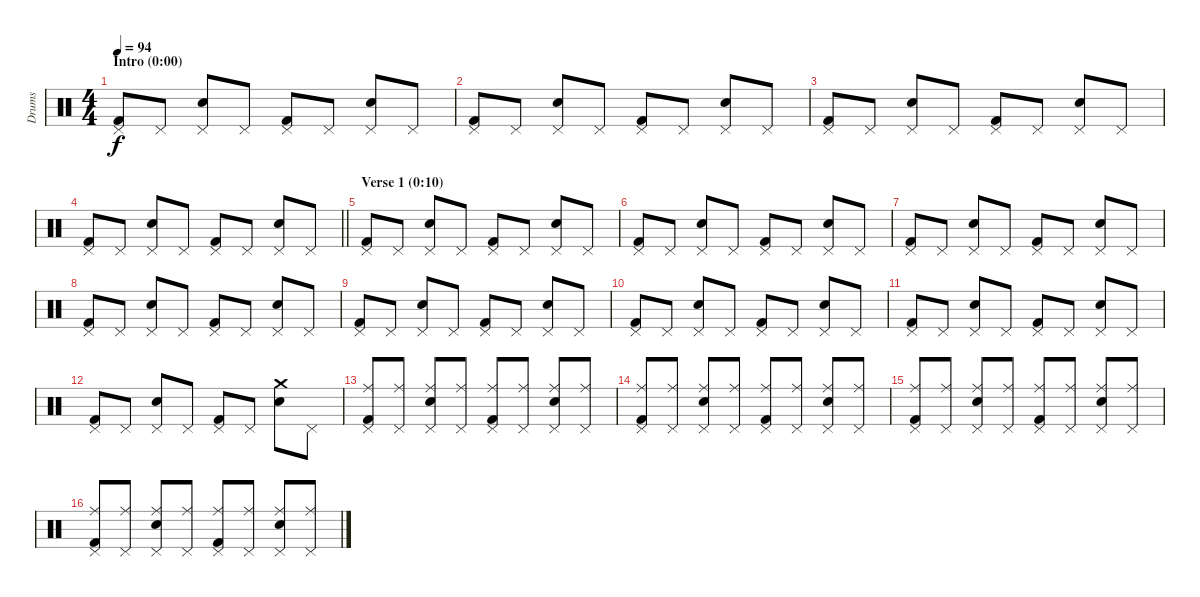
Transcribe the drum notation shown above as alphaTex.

\track ("Drums" "Drums") {instrument percussion}
\staff {score}
\articulation defaults
\ts (4 4)
\section ("" "Intro (0:00)")
\tempo 94
\clef neutral
\ks c
("Pedal Hi-Hat (hit)" "Kick (hit) 2").8{dy f} "Pedal Hi-Hat (hit)".8 ("Pedal Hi-Hat (hit)" "Snare (hit) 2").8 "Pedal Hi-Hat (hit)".8 ("Pedal Hi-Hat (hit)" "Kick (hit) 2").8 "Pedal Hi-Hat (hit)".8 ("Pedal Hi-Hat (hit)" "Snare (hit) 2").8 "Pedal Hi-Hat (hit)".8 |
("Pedal Hi-Hat (hit)" "Kick (hit) 2").8 "Pedal Hi-Hat (hit)".8 ("Pedal Hi-Hat (hit)" "Snare (hit) 2").8 "Pedal Hi-Hat (hit)".8 ("Pedal Hi-Hat (hit)" "Kick (hit) 2").8 "Pedal Hi-Hat (hit)".8 ("Pedal Hi-Hat (hit)" "Snare (hit) 2").8 "Pedal Hi-Hat (hit)".8 |
("Pedal Hi-Hat (hit)" "Kick (hit) 2").8 "Pedal Hi-Hat (hit)".8 ("Pedal Hi-Hat (hit)" "Snare (hit) 2").8 "Pedal Hi-Hat (hit)".8 ("Pedal Hi-Hat (hit)" "Kick (hit) 2").8 "Pedal Hi-Hat (hit)".8 ("Pedal Hi-Hat (hit)" "Snare (hit) 2").8 "Pedal Hi-Hat (hit)".8 |
\barLineRight lightlight
("Pedal Hi-Hat (hit)" "Kick (hit) 2").8 "Pedal Hi-Hat (hit)".8 ("Pedal Hi-Hat (hit)" "Snare (hit) 2").8 "Pedal Hi-Hat (hit)".8 ("Pedal Hi-Hat (hit)" "Kick (hit) 2").8 "Pedal Hi-Hat (hit)".8 ("Pedal Hi-Hat (hit)" "Snare (hit) 2").8 "Pedal Hi-Hat (hit)".8 |
\section ("" "Verse 1 (0:10)")
("Pedal Hi-Hat (hit)" "Kick (hit) 2").8 "Pedal Hi-Hat (hit)".8 ("Pedal Hi-Hat (hit)" "Snare (hit) 2").8 "Pedal Hi-Hat (hit)".8 ("Pedal Hi-Hat (hit)" "Kick (hit) 2").8 "Pedal Hi-Hat (hit)".8 ("Pedal Hi-Hat (hit)" "Snare (hit) 2").8 "Pedal Hi-Hat (hit)".8 |
("Pedal Hi-Hat (hit)" "Kick (hit) 2").8 "Pedal Hi-Hat (hit)".8 ("Pedal Hi-Hat (hit)" "Snare (hit) 2").8 "Pedal Hi-Hat (hit)".8 ("Pedal Hi-Hat (hit)" "Kick (hit) 2").8 "Pedal Hi-Hat (hit)".8 ("Pedal Hi-Hat (hit)" "Snare (hit) 2").8 "Pedal Hi-Hat (hit)".8 |
("Pedal Hi-Hat (hit)" "Kick (hit) 2").8 "Pedal Hi-Hat (hit)".8 ("Pedal Hi-Hat (hit)" "Snare (hit) 2").8 "Pedal Hi-Hat (hit)".8 ("Pedal Hi-Hat (hit)" "Kick (hit) 2").8 "Pedal Hi-Hat (hit)".8 ("Pedal Hi-Hat (hit)" "Snare (hit) 2").8 "Pedal Hi-Hat (hit)".8 |
("Pedal Hi-Hat (hit)" "Kick (hit) 2").8 "Pedal Hi-Hat (hit)".8 ("Pedal Hi-Hat (hit)" "Snare (hit) 2").8 "Pedal Hi-Hat (hit)".8 ("Pedal Hi-Hat (hit)" "Kick (hit) 2").8 "Pedal Hi-Hat (hit)".8 ("Pedal Hi-Hat (hit)" "Snare (hit) 2").8 "Pedal Hi-Hat (hit)".8 |
("Pedal Hi-Hat (hit)" "Kick (hit) 2").8 "Pedal Hi-Hat (hit)".8 ("Pedal Hi-Hat (hit)" "Snare (hit) 2").8 "Pedal Hi-Hat (hit)".8 ("Pedal Hi-Hat (hit)" "Kick (hit) 2").8 "Pedal Hi-Hat (hit)".8 ("Pedal Hi-Hat (hit)" "Snare (hit) 2").8 "Pedal Hi-Hat (hit)".8 |
("Pedal Hi-Hat (hit)" "Kick (hit) 2").8 "Pedal Hi-Hat (hit)".8 ("Pedal Hi-Hat (hit)" "Snare (hit) 2").8 "Pedal Hi-Hat (hit)".8 ("Pedal Hi-Hat (hit)" "Kick (hit) 2").8 "Pedal Hi-Hat (hit)".8 ("Pedal Hi-Hat (hit)" "Snare (hit) 2").8 "Pedal Hi-Hat (hit)".8 |
("Pedal Hi-Hat (hit)" "Kick (hit) 2").8 "Pedal Hi-Hat (hit)".8 ("Pedal Hi-Hat (hit)" "Snare (hit) 2").8 "Pedal Hi-Hat (hit)".8 ("Pedal Hi-Hat (hit)" "Kick (hit) 2").8 "Pedal Hi-Hat (hit)".8 ("Pedal Hi-Hat (hit)" "Snare (hit) 2").8 "Pedal Hi-Hat (hit)".8 |
("Pedal Hi-Hat (hit)" "Kick (hit) 2").8 "Pedal Hi-Hat (hit)".8 ("Pedal Hi-Hat (hit)" "Snare (hit) 2").8 "Pedal Hi-Hat (hit)".8 ("Pedal Hi-Hat (hit)" "Kick (hit) 2").8 "Pedal Hi-Hat (hit)".8 ("Crash medium (hit)" "Snare (hit) 2").8 "Pedal Hi-Hat (hit)".8 |
("Pedal Hi-Hat (hit)" "Ride (middle)" "Kick (hit) 2").8 ("Pedal Hi-Hat (hit)" "Ride (middle)").8 ("Pedal Hi-Hat (hit)" "Ride (middle)" "Snare (hit) 2").8 ("Pedal Hi-Hat (hit)" "Ride (middle)").8 ("Pedal Hi-Hat (hit)" "Ride (middle)" "Kick (hit) 2").8 ("Pedal Hi-Hat (hit)" "Ride (middle)").8 ("Pedal Hi-Hat (hit)" "Ride (middle)" "Snare (hit) 2").8 ("Pedal Hi-Hat (hit)" "Ride (middle)").8 |
("Pedal Hi-Hat (hit)" "Ride (middle)" "Kick (hit) 2").8 ("Pedal Hi-Hat (hit)" "Ride (middle)").8 ("Pedal Hi-Hat (hit)" "Ride (middle)" "Snare (hit) 2").8 ("Pedal Hi-Hat (hit)" "Ride (middle)").8 ("Pedal Hi-Hat (hit)" "Ride (middle)" "Kick (hit) 2").8 ("Pedal Hi-Hat (hit)" "Ride (middle)").8 ("Pedal Hi-Hat (hit)" "Ride (middle)" "Snare (hit) 2").8 ("Pedal Hi-Hat (hit)" "Ride (middle)").8 |
("Pedal Hi-Hat (hit)" "Ride (middle)" "Kick (hit) 2").8 ("Pedal Hi-Hat (hit)" "Ride (middle)").8 ("Pedal Hi-Hat (hit)" "Ride (middle)" "Snare (hit) 2").8 ("Pedal Hi-Hat (hit)" "Ride (middle)").8 ("Pedal Hi-Hat (hit)" "Ride (middle)" "Kick (hit) 2").8 ("Pedal Hi-Hat (hit)" "Ride (middle)").8 ("Pedal Hi-Hat (hit)" "Ride (middle)" "Snare (hit) 2").8 ("Pedal Hi-Hat (hit)" "Ride (middle)").8 |
("Pedal Hi-Hat (hit)" "Ride (middle)" "Kick (hit) 2").8 ("Pedal Hi-Hat (hit)" "Ride (middle)").8 ("Pedal Hi-Hat (hit)" "Ride (middle)" "Snare (hit) 2").8 ("Pedal Hi-Hat (hit)" "Ride (middle)").8 ("Pedal Hi-Hat (hit)" "Ride (middle)" "Kick (hit) 2").8 ("Pedal Hi-Hat (hit)" "Ride (middle)").8 ("Pedal Hi-Hat (hit)" "Ride (middle)" "Snare (hit) 2").8 ("Pedal Hi-Hat (hit)" "Ride (middle)").8
